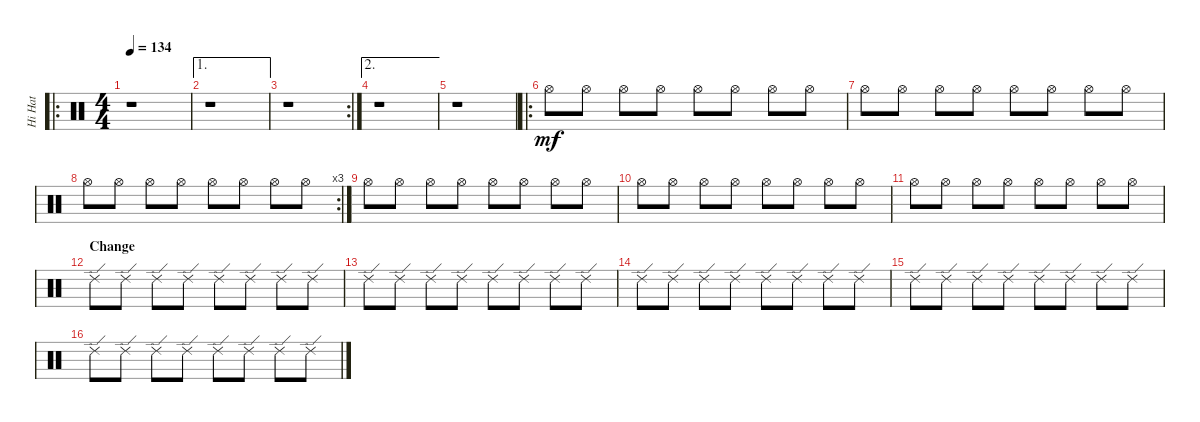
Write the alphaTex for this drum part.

\track ("Hi Hat" "Hi Hat") {instrument percussion}
\staff {score}
\articulation defaults
\ro
\ts (4 4)
\tempo 134
\clef neutral
\ks c
r.1{dy mf} |
\ae 1
r.1 |
\rc 2
r.1 |
\ae 2
r.1 |
r.1 |
\ro "Hi-Hat (open)".8 "Hi-Hat (open)".8 "Hi-Hat (open)".8 "Hi-Hat (open)".8 "Hi-Hat (open)".8 "Hi-Hat (open)".8 "Hi-Hat (open)".8 "Hi-Hat (open)".8
|
"Hi-Hat (open)".8 "Hi-Hat (open)".8 "Hi-Hat (open)".8 "Hi-Hat (open)".8 "Hi-Hat (open)".8 "Hi-Hat (open)".8 "Hi-Hat (open)".8 "Hi-Hat (open)".8 |
\rc 3 "Hi-Hat (open)".8 "Hi-Hat (open)".8 "Hi-Hat (open)".8 "Hi-Hat (open)".8 "Hi-Hat (open)".8 "Hi-Hat (open)".8 "Hi-Hat (open)".8 "Hi-Hat (open)".8
|
"Hi-Hat (open)".8 "Hi-Hat (open)".8 "Hi-Hat (open)".8 "Hi-Hat (open)".8 "Hi-Hat (open)".8 "Hi-Hat (open)".8 "Hi-Hat (open)".8 "Hi-Hat (open)".8 |
"Hi-Hat (open)".8 "Hi-Hat (open)".8 "Hi-Hat (open)".8 "Hi-Hat (open)".8 "Hi-Hat (open)".8 "Hi-Hat (open)".8 "Hi-Hat (open)".8 "Hi-Hat (open)".8 |
"Hi-Hat (open)".8 "Hi-Hat (open)".8 "Hi-Hat (open)".8 "Hi-Hat (open)".8 "Hi-Hat (open)".8 "Hi-Hat (open)".8 "Hi-Hat (open)".8 "Hi-Hat (open)".8 |
\section ("" "Change")
"Ride (edge) 2".8 "Ride (edge) 2".8 "Ride (edge) 2".8 "Ride (edge) 2".8 "Ride (edge) 2".8 "Ride (edge) 2".8 "Ride (edge) 2".8 "Ride (edge) 2".8 |
"Ride (edge) 2".8 "Ride (edge) 2".8 "Ride (edge) 2".8 "Ride (edge) 2".8 "Ride (edge) 2".8 "Ride (edge) 2".8 "Ride (edge) 2".8 "Ride (edge) 2".8 |
"Ride (edge) 2".8 "Ride (edge) 2".8 "Ride (edge) 2".8 "Ride (edge) 2".8 "Ride (edge) 2".8 "Ride (edge) 2".8 "Ride (edge) 2".8 "Ride (edge) 2".8 |
"Ride (edge) 2".8 "Ride (edge) 2".8 "Ride (edge) 2".8 "Ride (edge) 2".8 "Ride (edge) 2".8 "Ride (edge) 2".8 "Ride (edge) 2".8 "Ride (edge) 2".8 |
"Ride (edge) 2".8 "Ride (edge) 2".8 "Ride (edge) 2".8 "Ride (edge) 2".8 "Ride (edge) 2".8 "Ride (edge) 2".8 "Ride (edge) 2".8 "Ride (edge) 2".8
